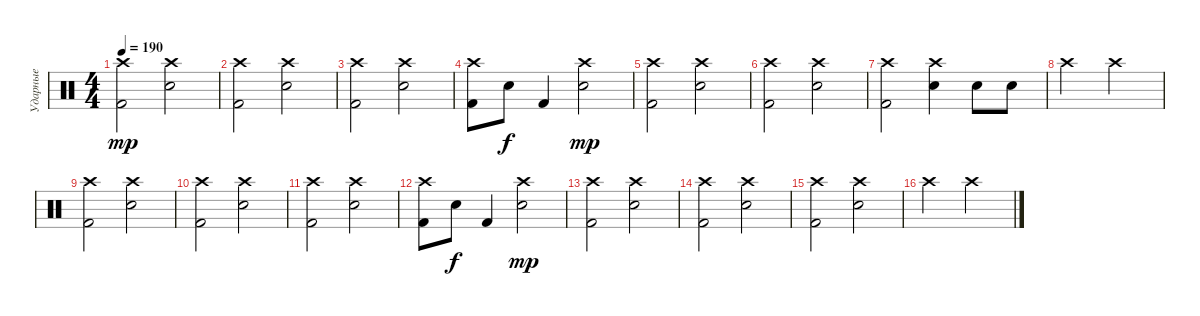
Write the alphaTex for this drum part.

\track ("Ударные" "Ударные") {instrument percussion}
\staff {score}
\articulation defaults
\ts (4 4)
\tempo 190
\clef neutral
\ks c
("Crash high (hit)" "Kick (hit) 2").2{dy mp} ("Crash high (hit)" "Snare (hit) 2").2 |
("Crash high (hit)" "Kick (hit) 2").2 ("Crash high (hit)" "Snare (hit) 2").2 |
("Crash high (hit)" "Kick (hit) 2").2 ("Crash high (hit)" "Snare (hit) 2").2 |
("Crash high (hit)" "Kick (hit) 2").8 "Snare (hit) 2".8{dy f} "Kick (hit) 2".4 ("Crash high (hit)" "Snare (hit) 2").2{dy mp} |
("Crash high (hit)" "Kick (hit) 2").2 ("Crash high (hit)" "Snare (hit) 2").2 |
("Crash high (hit)" "Kick (hit) 2").2 ("Crash high (hit)" "Snare (hit) 2").2 |
("Crash high (hit)" "Kick (hit) 2").2 ("Crash high (hit)" "Snare (hit) 2").4 "Snare (hit) 2".8 "Snare (hit) 2".8 |
"Crash high (hit)".2 "Crash high (hit)".2 |
("Crash high (hit)" "Kick (hit) 2").2 ("Crash high (hit)" "Snare (hit) 2").2 |
("Crash high (hit)" "Kick (hit) 2").2 ("Crash high (hit)" "Snare (hit) 2").2 |
("Crash high (hit)" "Kick (hit) 2").2 ("Crash high (hit)" "Snare (hit) 2").2 |
("Crash high (hit)" "Kick (hit) 2").8 "Snare (hit) 2".8{dy f} "Kick (hit) 2".4 ("Crash high (hit)" "Snare (hit) 2").2{dy mp} |
("Crash high (hit)" "Kick (hit) 2").2 ("Crash high (hit)" "Snare (hit) 2").2 |
("Crash high (hit)" "Kick (hit) 2").2 ("Crash high (hit)" "Snare (hit) 2").2 |
("Crash high (hit)" "Kick (hit) 2").2 ("Crash high (hit)" "Snare (hit) 2").2 |
"Crash high (hit)".2 "Crash high (hit)".2
